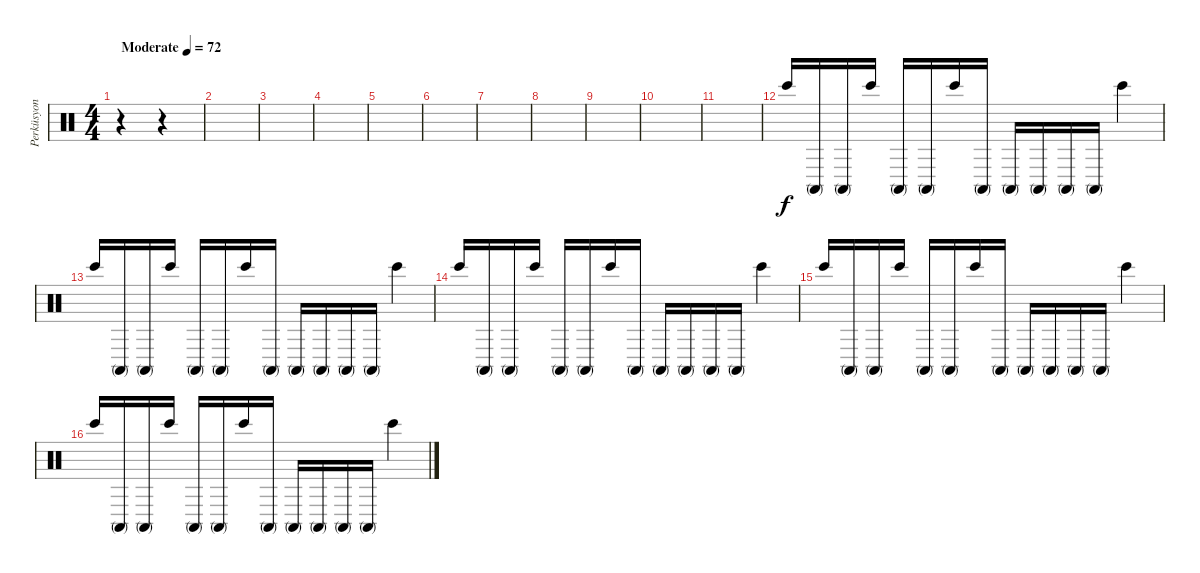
\track ("Perküsyon" "Perküsyon") {instrument percussion}
\staff {score}
\articulation defaults
\ts (4 4)
\tempo (72 "Moderate")
\clef neutral
\ks c
r.4{dy f} r.4 |
|
|
|
|
|
|
|
|
|
|
"Bongo High (hit)".16 "Conga high (mute)".16 "Conga high (mute)".16 "Bongo High (hit)".16 "Conga high (mute)".16 "Conga high (mute)".16 "Bongo High (hit)".16 "Conga high (mute)".16 "Conga high (mute)".16 "Conga high (mute)".16 "Conga high (mute)".16 "Conga high (mute)".16 "Bongo High (hit)".4 |
"Bongo High (hit)".16 "Conga high (mute)".16 "Conga high (mute)".16 "Bongo High (hit)".16 "Conga high (mute)".16 "Conga high (mute)".16 "Bongo High (hit)".16 "Conga high (mute)".16 "Conga high (mute)".16 "Conga high (mute)".16 "Conga high (mute)".16 "Conga high (mute)".16 "Bongo High (hit)".4 |
"Bongo High (hit)".16 "Conga high (mute)".16 "Conga high (mute)".16 "Bongo High (hit)".16 "Conga high (mute)".16 "Conga high (mute)".16 "Bongo High (hit)".16 "Conga high (mute)".16 "Conga high (mute)".16 "Conga high (mute)".16 "Conga high (mute)".16 "Conga high (mute)".16 "Bongo High (hit)".4 |
"Bongo High (hit)".16 "Conga high (mute)".16 "Conga high (mute)".16 "Bongo High (hit)".16 "Conga high (mute)".16 "Conga high (mute)".16 "Bongo High (hit)".16 "Conga high (mute)".16 "Conga high (mute)".16 "Conga high (mute)".16 "Conga high (mute)".16 "Conga high (mute)".16 "Bongo High (hit)".4 |
"Bongo High (hit)".16 "Conga high (mute)".16 "Conga high (mute)".16 "Bongo High (hit)".16 "Conga high (mute)".16 "Conga high (mute)".16 "Bongo High (hit)".16 "Conga high (mute)".16 "Conga high (mute)".16 "Conga high (mute)".16 "Conga high (mute)".16 "Conga high (mute)".16 "Bongo High (hit)".4
